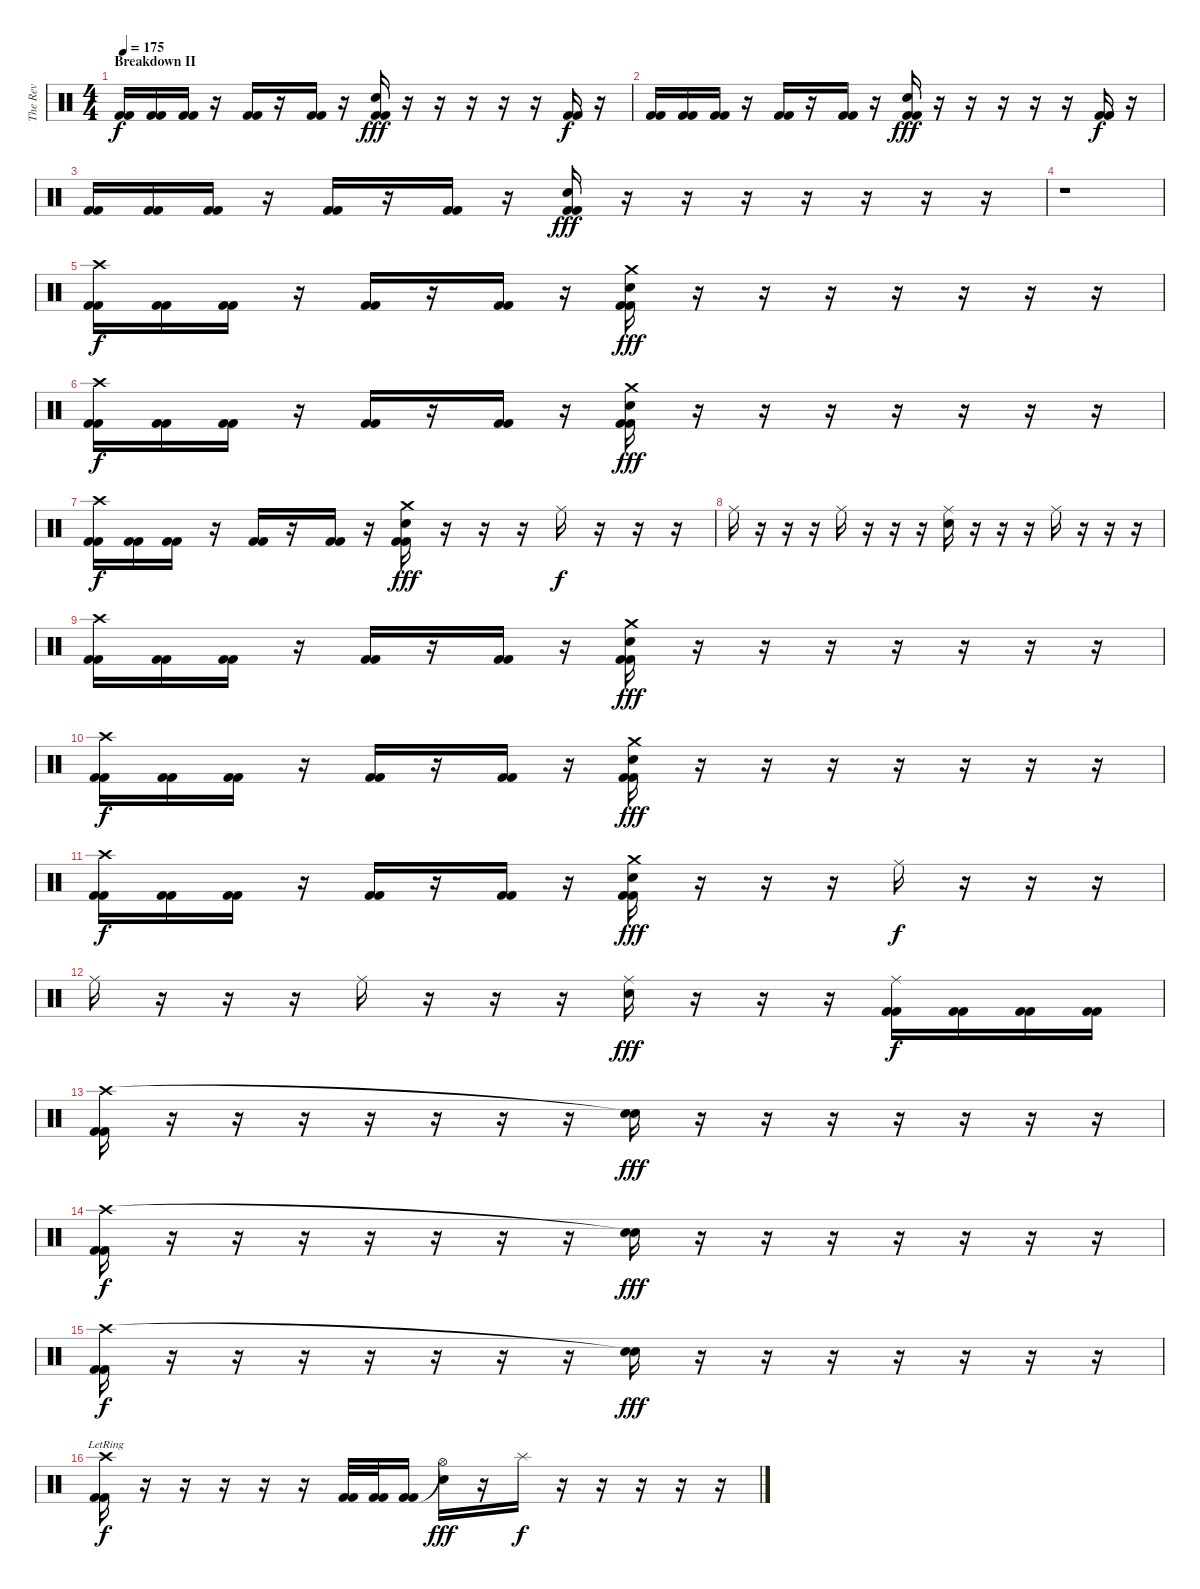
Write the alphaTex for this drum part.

\track ("The Rev" "The Rev") {instrument percussion}
\staff {score}
\articulation defaults
\ts (4 4)
\section ("" "Breakdown II")
\tempo 175
\clef neutral
\ks c
("Kick (hit) 2" "Kick (hit) 2").16{dy f} ("Kick (hit) 2" "Kick (hit) 2").16 ("Kick (hit) 2" "Kick (hit) 2").16 r.16 ("Kick (hit) 2" "Kick (hit) 2").16 r.16 ("Kick (hit) 2" "Kick (hit) 2").16 r.16 ("Electric Snare (hit)" "Kick (hit) 2" "Kick (hit) 2").16{dy fff} r.16 r.16 r.16 r.16 r.16 ("Kick (hit) 2" "Kick (hit) 2").16{dy f} r.16 |
("Kick (hit) 2" "Kick (hit) 2").16 ("Kick (hit) 2" "Kick (hit) 2").16 ("Kick (hit) 2" "Kick (hit) 2").16 r.16 ("Kick (hit) 2" "Kick (hit) 2").16 r.16 ("Kick (hit) 2" "Kick (hit) 2").16 r.16 ("Electric Snare (hit)" "Kick (hit) 2" "Kick (hit) 2").16{dy fff} r.16 r.16 r.16 r.16 r.16 ("Kick (hit) 2" "Kick (hit) 2").16{dy f} r.16 |
("Kick (hit) 2" "Kick (hit) 2").16 ("Kick (hit) 2" "Kick (hit) 2").16 ("Kick (hit) 2" "Kick (hit) 2").16 r.16 ("Kick (hit) 2" "Kick (hit) 2").16 r.16 ("Kick (hit) 2" "Kick (hit) 2").16 r.16 ("Electric Snare (hit)" "Kick (hit) 2" "Kick (hit) 2").16{dy fff} r.16 r.16 r.16 r.16 r.16 r.16 r.16 |
r.1 |
("Crash high (hit)" "Kick (hit) 2" "Kick (hit) 2").16{dy f} ("Kick (hit) 2" "Kick (hit) 2").16 ("Kick (hit) 2" "Kick (hit) 2").16 r.16 ("Kick (hit) 2" "Kick (hit) 2").16 r.16 ("Kick (hit) 2" "Kick (hit) 2").16 r.16 ("Crash medium (hit)" "Electric Snare (hit)" "Kick (hit) 2" "Kick (hit) 2").16{dy fff} r.16 r.16 r.16 r.16 r.16 r.16 r.16 |
("Crash high (hit)" "Kick (hit) 2" "Kick (hit) 2").16{dy f} ("Kick (hit) 2" "Kick (hit) 2").16 ("Kick (hit) 2" "Kick (hit) 2").16 r.16 ("Kick (hit) 2" "Kick (hit) 2").16 r.16 ("Kick (hit) 2" "Kick (hit) 2").16 r.16 ("Crash medium (hit)" "Electric Snare (hit)" "Kick (hit) 2" "Kick (hit) 2").16{dy fff} r.16 r.16 r.16 r.16 r.16 r.16 r.16 |
("Crash high (hit)" "Kick (hit) 2" "Kick (hit) 2").16{dy f} ("Kick (hit) 2" "Kick (hit) 2").16 ("Kick (hit) 2" "Kick (hit) 2").16 r.16 ("Kick (hit) 2" "Kick (hit) 2").16 r.16 ("Kick (hit) 2" "Kick (hit) 2").16 r.16 ("Crash medium (hit)" "Electric Snare (hit)" "Kick (hit) 2" "Kick (hit) 2").16{dy fff} r.16 r.16 r.16 "Ride (middle)".16{dy f} r.16 r.16 r.16 |
"Ride (middle)".16 r.16 r.16 r.16 "Ride (middle)".16 r.16 r.16 r.16 ("Ride (middle)" "Electric Snare (hit)").16 r.16 r.16 r.16 "Ride (middle)".16 r.16 r.16 r.16 |
("Crash high (hit)" "Kick (hit) 2" "Kick (hit) 2").16 ("Kick (hit) 2" "Kick (hit) 2").16 ("Kick (hit) 2" "Kick (hit) 2").16 r.16 ("Kick (hit) 2" "Kick (hit) 2").16 r.16 ("Kick (hit) 2" "Kick (hit) 2").16 r.16 ("Crash medium (hit)" "Electric Snare (hit)" "Kick (hit) 2" "Kick (hit) 2").16{dy fff} r.16 r.16 r.16 r.16 r.16 r.16 r.16 |
("Crash high (hit)" "Kick (hit) 2" "Kick (hit) 2").16{dy f} ("Kick (hit) 2" "Kick (hit) 2").16 ("Kick (hit) 2" "Kick (hit) 2").16 r.16 ("Kick (hit) 2" "Kick (hit) 2").16 r.16 ("Kick (hit) 2" "Kick (hit) 2").16 r.16 ("Crash medium (hit)" "Electric Snare (hit)" "Kick (hit) 2" "Kick (hit) 2").16{dy fff} r.16 r.16 r.16 r.16 r.16 r.16 r.16 |
("Crash high (hit)" "Kick (hit) 2" "Kick (hit) 2").16{dy f} ("Kick (hit) 2" "Kick (hit) 2").16 ("Kick (hit) 2" "Kick (hit) 2").16 r.16 ("Kick (hit) 2" "Kick (hit) 2").16 r.16 ("Kick (hit) 2" "Kick (hit) 2").16 r.16 ("Crash medium (hit)" "Electric Snare (hit)" "Kick (hit) 2" "Kick (hit) 2").16{dy fff} r.16 r.16 r.16 "Ride (middle)".16{dy f} r.16 r.16 r.16 |
"Ride (middle)".16 r.16 r.16 r.16 "Ride (middle)".16 r.16 r.16 r.16 ("Ride (middle)" "Electric Snare (hit)").16{dy fff} r.16 r.16 r.16 ("Ride (middle)" "Kick (hit) 2" "Kick (hit) 2").16{dy f} ("Kick (hit) 2" "Kick (hit) 2").16 ("Kick (hit) 2" "Kick (hit) 2").16 ("Kick (hit) 2" "Kick (hit) 2").16 |
("Crash high (hit)" "Kick (hit) 2" "Kick (hit) 2").16 r.16 r.16 r.16 r.16 r.16 r.16 r.16 ("Snare (hit)"{t} "Electric Snare (hit)").16{dy fff} r.16 r.16 r.16 r.16 r.16 r.16 r.16 |
("Crash high (hit)" "Kick (hit) 2" "Kick (hit) 2").16{dy f} r.16 r.16 r.16 r.16 r.16 r.16 r.16 ("Snare (hit)"{t} "Electric Snare (hit)").16{dy fff} r.16 r.16 r.16 r.16 r.16 r.16 r.16 |
("Crash high (hit)" "Kick (hit) 2" "Kick (hit) 2").16{dy f} r.16 r.16 r.16 r.16 r.16 r.16 r.16 ("Snare (hit)"{t} "Electric Snare (hit)").16{dy fff} r.16 r.16 r.16 r.16 r.16 r.16 r.16 |
("Crash high (hit)"{lr} "Kick (hit) 2" "Kick (hit) 2").16{dy f} r.16 r.16 r.16 r.16 r.16 ("Kick (hit) 2" "Kick (hit) 2").32 ("Kick (hit) 2" "Kick (hit) 2").32 ("Kick (hit) 2" "Kick (hit) 2").16 ("Hi-Hat (open)"{t} "Electric Snare (hit)").16{dy fff} r.16 "Splash (hit)".16{dy f} r.16 r.16 r.16 r.16 r.16
